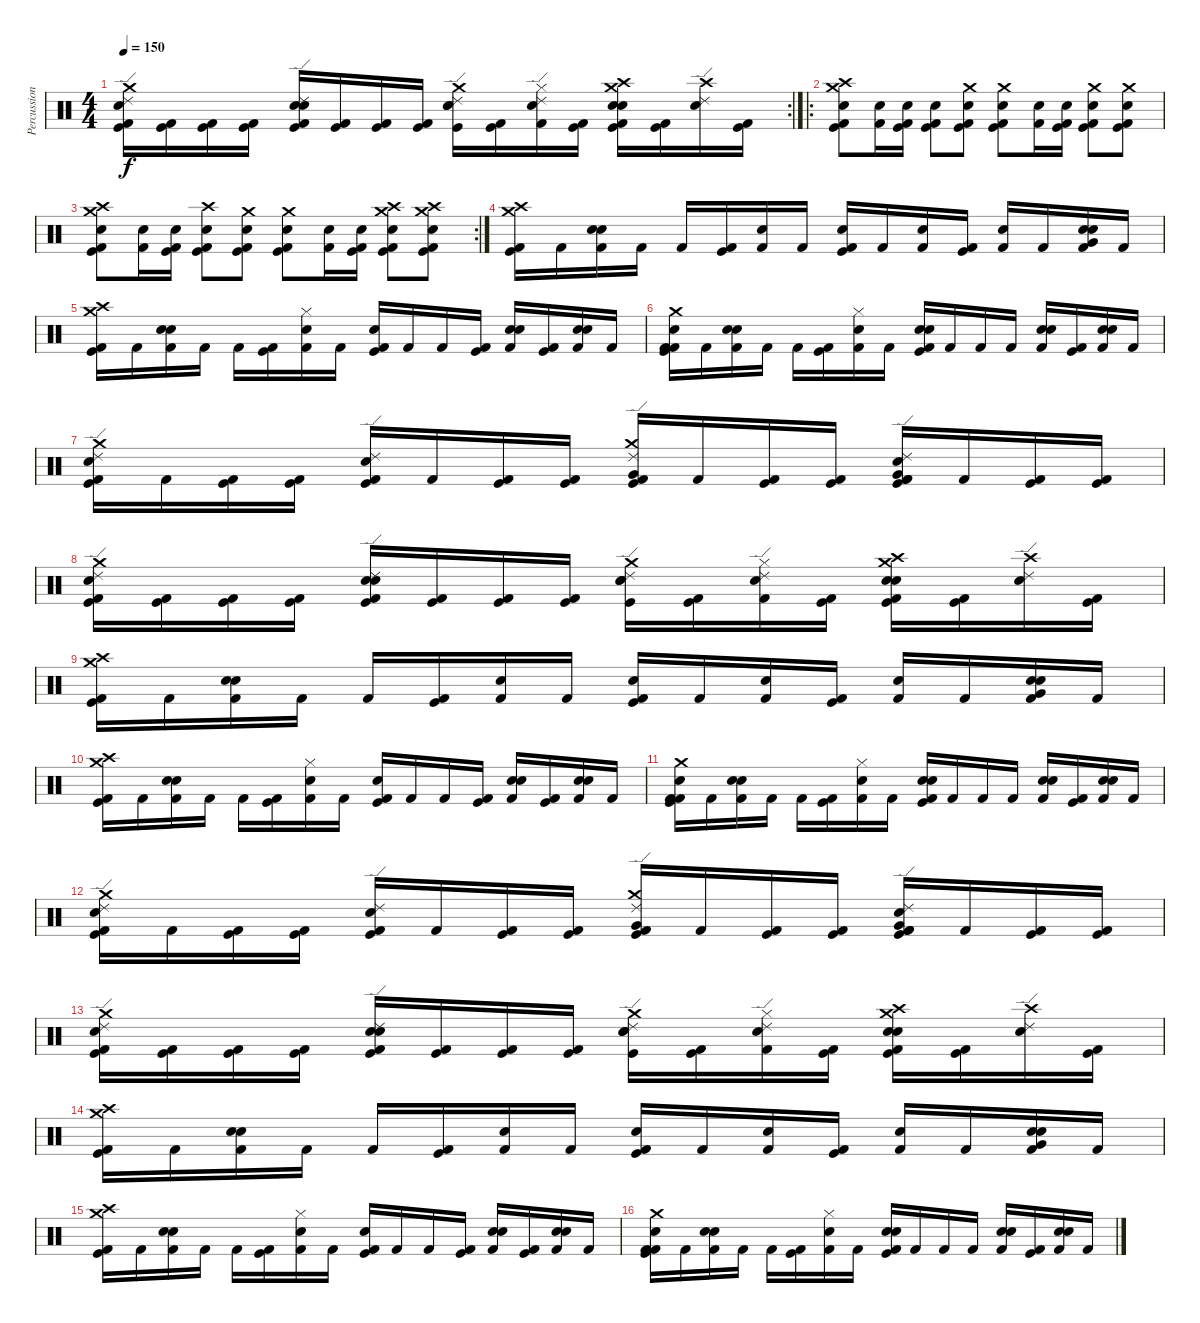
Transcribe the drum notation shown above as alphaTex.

\track ("Percussion" "Percussion") {instrument percussion}
\staff {score}
\articulation defaults
\rc 2
\ts (4 4)
\tempo 150
\clef neutral
\ks c
("Ride (edge) 2" "Kick (hit) 2" "Kick (hit)" "Snare (hit) 2" "Crash medium (hit)").16{dy f} ("Kick (hit) 2" "Kick (hit)").16 ("Kick (hit) 2" "Kick (hit)").16 ("Kick (hit) 2" "Kick (hit)").16 ("Electric Snare (hit)" "Snare (hit) 2" "Ride (edge) 2" "Kick (hit) 2" "Kick (hit)").16 ("Kick (hit) 2" "Kick (hit)").16 ("Kick (hit) 2" "Kick (hit)").16 ("Kick (hit) 2" "Kick (hit)").16 ("Ride (edge) 2" "Electric Snare (hit)" "Snare (hit) 2" "Crash medium (hit)" "Kick (hit)").16 ("Kick (hit) 2" "Kick (hit)").16 ("Kick (hit) 2" "Hi-Hat (closed)" "Snare (hit) 2" "Ride (edge) 2").16 ("Kick (hit) 2" "Kick (hit)").16 ("Electric Snare (hit)" "Kick (hit) 2" "Kick (hit)" "Snare (hit) 2" "Crash high (hit)" "Crash medium (hit)").16 ("Kick (hit) 2" "Kick (hit)").16 ("Ride (edge) 2" "Snare (hit) 2" "Crash high (hit)").16 ("Kick (hit) 2" "Kick (hit)").16 |
\ro
("Crash medium (hit)" "Snare (hit) 2" "Kick (hit) 2" "Kick (hit)" "Crash high (hit)").8 ("Snare (hit) 2" "Kick (hit) 2").16 ("Snare (hit) 2" "Kick (hit) 2" "Kick (hit)").16 ("Snare (hit) 2" "Kick (hit) 2" "Kick (hit)").8 ("Snare (hit) 2" "Kick (hit) 2" "Kick (hit)" "Crash medium (hit)").8 ("Kick (hit) 2" "Kick (hit)" "Snare (hit) 2" "Crash medium (hit)").8 ("Snare (hit) 2" "Kick (hit) 2").16 ("Kick (hit) 2" "Kick (hit)" "Snare (hit) 2").16 ("Crash medium (hit)" "Snare (hit) 2" "Kick (hit) 2" "Kick (hit)").8 ("Crash medium (hit)" "Snare (hit) 2" "Kick (hit) 2" "Kick (hit)").8 |
\rc 2
("Crash medium (hit)" "Snare (hit) 2" "Kick (hit) 2" "Kick (hit)" "Crash high (hit)").8 ("Snare (hit) 2" "Kick (hit) 2").16 ("Snare (hit) 2" "Kick (hit) 2" "Kick (hit)").16 ("Snare (hit) 2" "Kick (hit) 2" "Kick (hit)" "Crash high (hit)").8 ("Snare (hit) 2" "Kick (hit) 2" "Kick (hit)" "Crash medium (hit)").8 ("Kick (hit) 2" "Kick (hit)" "Snare (hit) 2" "Crash medium (hit)").8 ("Snare (hit) 2" "Kick (hit) 2").16 ("Kick (hit) 2" "Kick (hit)" "Snare (hit) 2").16 ("Crash medium (hit)" "Snare (hit) 2" "Kick (hit) 2" "Kick (hit)" "Crash high (hit)").8 ("Crash medium (hit)" "Snare (hit) 2" "Kick (hit) 2" "Kick (hit)" "Crash high (hit)").8 |
("Crash high (hit)" "Crash medium (hit)" "Kick (hit) 2" "Kick (hit)").16 "Kick (hit) 2".16 ("Kick (hit) 2" "Electric Snare (hit)" "Snare (hit) 2").16 "Kick (hit) 2".16 "Kick (hit) 2".16 ("Kick (hit) 2" "Kick (hit)").16 ("Kick (hit) 2" "Snare (hit) 2").16 "Kick (hit) 2".16 ("Kick (hit) 2" "Kick (hit)" "Snare (hit) 2").16 "Kick (hit) 2".16 ("Kick (hit) 2" "Electric Snare (hit)").16 ("Kick (hit) 2" "Kick (hit)").16 ("Kick (hit) 2" "Snare (hit) 2").16 "Kick (hit) 2".16 ("Kick (hit) 2" "Electric Snare (hit)" "Snare (hit) 2" "Very Low Tom (hit)").16 "Kick (hit) 2".16 |
("Crash medium (hit)" "Crash high (hit)" "Kick (hit) 2" "Kick (hit)").16 "Kick (hit) 2".16 ("Kick (hit) 2" "Electric Snare (hit)" "Snare (hit) 2").16 "Kick (hit) 2".16 "Kick (hit) 2".16 ("Kick (hit) 2" "Kick (hit)").16 ("Kick (hit) 2" "Hi-Hat (closed)" "Snare (hit) 2").16 "Kick (hit) 2".16 ("Kick (hit) 2" "Kick (hit)" "Snare (hit) 2").16 "Kick (hit) 2".16 "Kick (hit) 2".16 ("Kick (hit) 2" "Kick (hit)").16 ("Kick (hit) 2" "Electric Snare (hit)" "Snare (hit) 2").16 ("Kick (hit) 2" "Kick (hit)").16 ("Kick (hit) 2" "Electric Snare (hit)" "Snare (hit) 2").16 "Kick (hit) 2".16 |
("Kick (hit) 2" "Kick (hit) 2" "Kick (hit)" "Snare (hit) 2" "Crash medium (hit)").16 "Kick (hit) 2".16 ("Kick (hit) 2" "Electric Snare (hit)" "Snare (hit) 2").16 "Kick (hit) 2".16 "Kick (hit) 2".16 ("Kick (hit) 2" "Kick (hit)").16 ("Kick (hit) 2" "Hi-Hat (closed)" "Snare (hit) 2").16 "Kick (hit) 2".16 ("Kick (hit) 2" "Electric Snare (hit)" "Kick (hit)" "Snare (hit) 2").16 "Kick (hit) 2".16 "Kick (hit) 2".16 "Kick (hit) 2".16 ("Kick (hit) 2" "Electric Snare (hit)" "Snare (hit) 2").16 ("Kick (hit) 2" "Kick (hit)").16 ("Kick (hit) 2" "Electric Snare (hit)" "Snare (hit) 2").16 "Kick (hit) 2".16 |
("Ride (edge) 2" "Kick (hit) 2" "Kick (hit)" "Snare (hit) 2" "Crash medium (hit)").16 "Kick (hit) 2".16 ("Kick (hit) 2" "Kick (hit)").16 ("Kick (hit) 2" "Kick (hit)").16 ("Kick (hit) 2" "Snare (hit) 2" "Ride (edge) 2" "Kick (hit)").16 "Kick (hit) 2".16 ("Kick (hit) 2" "Kick (hit)").16 ("Kick (hit) 2" "Kick (hit)").16 ("Ride (edge) 2" "Kick (hit) 2" "Kick (hit)" "Crash medium (hit)" "Very Low Tom (hit)").16 "Kick (hit) 2".16 ("Kick (hit) 2" "Kick (hit)").16 ("Kick (hit) 2" "Kick (hit)").16 ("Kick (hit) 2" "Snare (hit) 2" "Ride (edge) 2" "Kick (hit) 2" "Kick (hit)" "Very Low Tom (hit)").16 "Kick (hit) 2".16 ("Kick (hit) 2" "Kick (hit)").16 ("Kick (hit) 2" "Kick (hit)").16 |
("Ride (edge) 2" "Kick (hit) 2" "Kick (hit)" "Snare (hit) 2" "Crash medium (hit)").16 ("Kick (hit) 2" "Kick (hit)").16 ("Kick (hit) 2" "Kick (hit)").16 ("Kick (hit) 2" "Kick (hit)").16 ("Electric Snare (hit)" "Snare (hit) 2" "Ride (edge) 2" "Kick (hit) 2" "Kick (hit)").16 ("Kick (hit) 2" "Kick (hit)").16 ("Kick (hit) 2" "Kick (hit)").16 ("Kick (hit) 2" "Kick (hit)").16 ("Ride (edge) 2" "Electric Snare (hit)" "Snare (hit) 2" "Crash medium (hit)" "Kick (hit)").16 ("Kick (hit) 2" "Kick (hit)").16 ("Kick (hit) 2" "Hi-Hat (closed)" "Snare (hit) 2" "Ride (edge) 2").16 ("Kick (hit) 2" "Kick (hit)").16 ("Electric Snare (hit)" "Kick (hit) 2" "Kick (hit)" "Snare (hit) 2" "Crash high (hit)" "Crash medium (hit)").16 ("Kick (hit) 2" "Kick (hit)").16 ("Ride (edge) 2" "Snare (hit) 2" "Crash high (hit)").16 ("Kick (hit) 2" "Kick (hit)").16 |
("Crash high (hit)" "Crash medium (hit)" "Kick (hit) 2" "Kick (hit)").16 "Kick (hit) 2".16 ("Kick (hit) 2" "Electric Snare (hit)" "Snare (hit) 2").16 "Kick (hit) 2".16 "Kick (hit) 2".16 ("Kick (hit) 2" "Kick (hit)").16 ("Kick (hit) 2" "Snare (hit) 2").16 "Kick (hit) 2".16 ("Kick (hit) 2" "Kick (hit)" "Snare (hit) 2").16 "Kick (hit) 2".16 ("Kick (hit) 2" "Electric Snare (hit)").16 ("Kick (hit) 2" "Kick (hit)").16 ("Kick (hit) 2" "Snare (hit) 2").16 "Kick (hit) 2".16 ("Kick (hit) 2" "Electric Snare (hit)" "Snare (hit) 2" "Very Low Tom (hit)").16 "Kick (hit) 2".16 |
("Crash medium (hit)" "Crash high (hit)" "Kick (hit) 2" "Kick (hit)").16 "Kick (hit) 2".16 ("Kick (hit) 2" "Electric Snare (hit)" "Snare (hit) 2").16 "Kick (hit) 2".16 "Kick (hit) 2".16 ("Kick (hit) 2" "Kick (hit)").16 ("Kick (hit) 2" "Hi-Hat (closed)" "Snare (hit) 2").16 "Kick (hit) 2".16 ("Kick (hit) 2" "Kick (hit)" "Snare (hit) 2").16 "Kick (hit) 2".16 "Kick (hit) 2".16 ("Kick (hit) 2" "Kick (hit)").16 ("Kick (hit) 2" "Electric Snare (hit)" "Snare (hit) 2").16 ("Kick (hit) 2" "Kick (hit)").16 ("Kick (hit) 2" "Electric Snare (hit)" "Snare (hit) 2").16 "Kick (hit) 2".16 |
("Kick (hit) 2" "Kick (hit) 2" "Kick (hit)" "Snare (hit) 2" "Crash medium (hit)").16 "Kick (hit) 2".16 ("Kick (hit) 2" "Electric Snare (hit)" "Snare (hit) 2").16 "Kick (hit) 2".16 "Kick (hit) 2".16 ("Kick (hit) 2" "Kick (hit)").16 ("Kick (hit) 2" "Hi-Hat (closed)" "Snare (hit) 2").16 "Kick (hit) 2".16 ("Kick (hit) 2" "Electric Snare (hit)" "Kick (hit)" "Snare (hit) 2").16 "Kick (hit) 2".16 "Kick (hit) 2".16 "Kick (hit) 2".16 ("Kick (hit) 2" "Electric Snare (hit)" "Snare (hit) 2").16 ("Kick (hit) 2" "Kick (hit)").16 ("Kick (hit) 2" "Electric Snare (hit)" "Snare (hit) 2").16 "Kick (hit) 2".16 |
("Ride (edge) 2" "Kick (hit) 2" "Kick (hit)" "Snare (hit) 2" "Crash medium (hit)").16 "Kick (hit) 2".16 ("Kick (hit) 2" "Kick (hit)").16 ("Kick (hit) 2" "Kick (hit)").16 ("Kick (hit) 2" "Snare (hit) 2" "Ride (edge) 2" "Kick (hit)").16 "Kick (hit) 2".16 ("Kick (hit) 2" "Kick (hit)").16 ("Kick (hit) 2" "Kick (hit)").16 ("Ride (edge) 2" "Kick (hit) 2" "Kick (hit)" "Crash medium (hit)" "Very Low Tom (hit)").16 "Kick (hit) 2".16 ("Kick (hit) 2" "Kick (hit)").16 ("Kick (hit) 2" "Kick (hit)").16 ("Kick (hit) 2" "Snare (hit) 2" "Ride (edge) 2" "Kick (hit) 2" "Kick (hit)" "Very Low Tom (hit)").16 "Kick (hit) 2".16 ("Kick (hit) 2" "Kick (hit)").16 ("Kick (hit) 2" "Kick (hit)").16 |
("Ride (edge) 2" "Kick (hit) 2" "Kick (hit)" "Snare (hit) 2" "Crash medium (hit)").16 ("Kick (hit) 2" "Kick (hit)").16 ("Kick (hit) 2" "Kick (hit)").16 ("Kick (hit) 2" "Kick (hit)").16 ("Electric Snare (hit)" "Snare (hit) 2" "Ride (edge) 2" "Kick (hit) 2" "Kick (hit)").16 ("Kick (hit) 2" "Kick (hit)").16 ("Kick (hit) 2" "Kick (hit)").16 ("Kick (hit) 2" "Kick (hit)").16 ("Ride (edge) 2" "Electric Snare (hit)" "Snare (hit) 2" "Crash medium (hit)" "Kick (hit)").16 ("Kick (hit) 2" "Kick (hit)").16 ("Kick (hit) 2" "Hi-Hat (closed)" "Snare (hit) 2" "Ride (edge) 2").16 ("Kick (hit) 2" "Kick (hit)").16 ("Electric Snare (hit)" "Kick (hit) 2" "Kick (hit)" "Snare (hit) 2" "Crash high (hit)" "Crash medium (hit)").16 ("Kick (hit) 2" "Kick (hit)").16 ("Ride (edge) 2" "Snare (hit) 2" "Crash high (hit)").16 ("Kick (hit) 2" "Kick (hit)").16 |
("Crash high (hit)" "Crash medium (hit)" "Kick (hit) 2" "Kick (hit)").16 "Kick (hit) 2".16 ("Kick (hit) 2" "Electric Snare (hit)" "Snare (hit) 2").16 "Kick (hit) 2".16 "Kick (hit) 2".16 ("Kick (hit) 2" "Kick (hit)").16 ("Kick (hit) 2" "Snare (hit) 2").16 "Kick (hit) 2".16 ("Kick (hit) 2" "Kick (hit)" "Snare (hit) 2").16 "Kick (hit) 2".16 ("Kick (hit) 2" "Electric Snare (hit)").16 ("Kick (hit) 2" "Kick (hit)").16 ("Kick (hit) 2" "Snare (hit) 2").16 "Kick (hit) 2".16 ("Kick (hit) 2" "Electric Snare (hit)" "Snare (hit) 2" "Very Low Tom (hit)").16 "Kick (hit) 2".16 |
("Crash medium (hit)" "Crash high (hit)" "Kick (hit) 2" "Kick (hit)").16 "Kick (hit) 2".16 ("Kick (hit) 2" "Electric Snare (hit)" "Snare (hit) 2").16 "Kick (hit) 2".16 "Kick (hit) 2".16 ("Kick (hit) 2" "Kick (hit)").16 ("Kick (hit) 2" "Hi-Hat (closed)" "Snare (hit) 2").16 "Kick (hit) 2".16 ("Kick (hit) 2" "Kick (hit)" "Snare (hit) 2").16 "Kick (hit) 2".16 "Kick (hit) 2".16 ("Kick (hit) 2" "Kick (hit)").16 ("Kick (hit) 2" "Electric Snare (hit)" "Snare (hit) 2").16 ("Kick (hit) 2" "Kick (hit)").16 ("Kick (hit) 2" "Electric Snare (hit)" "Snare (hit) 2").16 "Kick (hit) 2".16 |
("Kick (hit) 2" "Kick (hit) 2" "Kick (hit)" "Snare (hit) 2" "Crash medium (hit)").16 "Kick (hit) 2".16 ("Kick (hit) 2" "Electric Snare (hit)" "Snare (hit) 2").16 "Kick (hit) 2".16 "Kick (hit) 2".16 ("Kick (hit) 2" "Kick (hit)").16 ("Kick (hit) 2" "Hi-Hat (closed)" "Snare (hit) 2").16 "Kick (hit) 2".16 ("Kick (hit) 2" "Electric Snare (hit)" "Kick (hit)" "Snare (hit) 2").16 "Kick (hit) 2".16 "Kick (hit) 2".16 "Kick (hit) 2".16 ("Kick (hit) 2" "Electric Snare (hit)" "Snare (hit) 2").16 ("Kick (hit) 2" "Kick (hit)").16 ("Kick (hit) 2" "Electric Snare (hit)" "Snare (hit) 2").16 "Kick (hit) 2".16
